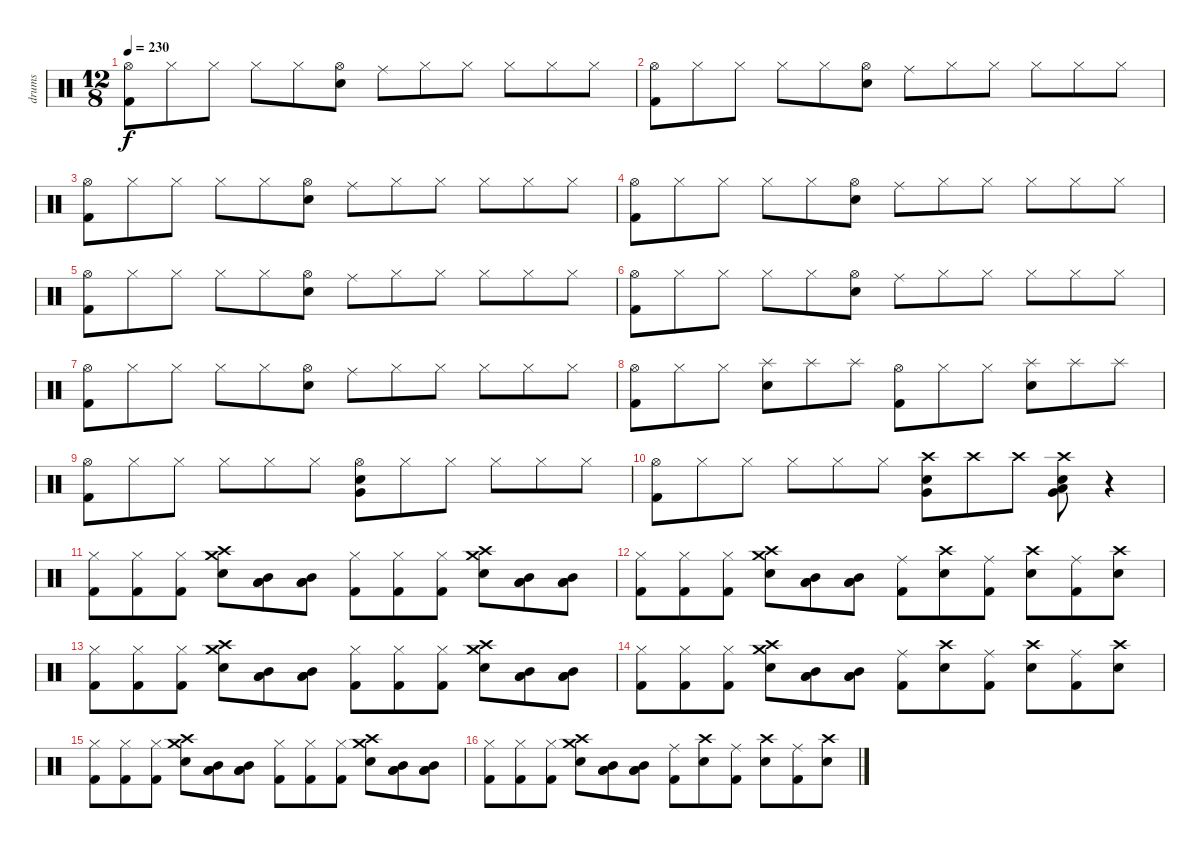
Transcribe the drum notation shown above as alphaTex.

\track ("drums" "drums") {instrument percussion}
\staff {score}
\articulation defaults
\ts (12 8)
\tempo 230
\clef neutral
\ks c
("Hi-Hat (open)" "Kick (hit) 2").8{dy f} "Hi-Hat (closed)".8 "Hi-Hat (closed)".8 "Hi-Hat (closed)".8 "Hi-Hat (closed)".8 ("Snare (hit) 2" "Hi-Hat (open)").8 "Ride (middle)".8 "Hi-Hat (closed)".8 "Hi-Hat (closed)".8 "Hi-Hat (closed)".8 "Hi-Hat (closed)".8 "Hi-Hat (closed)".8 |
("Hi-Hat (open)" "Kick (hit) 2").8 "Hi-Hat (closed)".8 "Hi-Hat (closed)".8 "Hi-Hat (closed)".8 "Hi-Hat (closed)".8 ("Snare (hit) 2" "Hi-Hat (open)").8 "Ride (middle)".8 "Hi-Hat (closed)".8 "Hi-Hat (closed)".8 "Hi-Hat (closed)".8 "Hi-Hat (closed)".8 "Hi-Hat (closed)".8 |
("Hi-Hat (open)" "Kick (hit) 2").8 "Hi-Hat (closed)".8 "Hi-Hat (closed)".8 "Hi-Hat (closed)".8 "Hi-Hat (closed)".8 ("Snare (hit) 2" "Hi-Hat (open)").8 "Ride (middle)".8 "Hi-Hat (closed)".8 "Hi-Hat (closed)".8 "Hi-Hat (closed)".8 "Hi-Hat (closed)".8 "Hi-Hat (closed)".8 |
("Hi-Hat (open)" "Kick (hit) 2").8 "Hi-Hat (closed)".8 "Hi-Hat (closed)".8 "Hi-Hat (closed)".8 "Hi-Hat (closed)".8 ("Snare (hit) 2" "Hi-Hat (open)").8 "Ride (middle)".8 "Hi-Hat (closed)".8 "Hi-Hat (closed)".8 "Hi-Hat (closed)".8 "Hi-Hat (closed)".8 "Hi-Hat (closed)".8 |
("Hi-Hat (open)" "Kick (hit) 2").8 "Hi-Hat (closed)".8 "Hi-Hat (closed)".8 "Hi-Hat (closed)".8 "Hi-Hat (closed)".8 ("Snare (hit) 2" "Hi-Hat (open)").8 "Ride (middle)".8 "Hi-Hat (closed)".8 "Hi-Hat (closed)".8 "Hi-Hat (closed)".8 "Hi-Hat (closed)".8 "Hi-Hat (closed)".8 |
("Hi-Hat (open)" "Kick (hit) 2").8 "Hi-Hat (closed)".8 "Hi-Hat (closed)".8 "Hi-Hat (closed)".8 "Hi-Hat (closed)".8 ("Snare (hit) 2" "Hi-Hat (open)").8 "Ride (middle)".8 "Hi-Hat (closed)".8 "Hi-Hat (closed)".8 "Hi-Hat (closed)".8 "Hi-Hat (closed)".8 "Hi-Hat (closed)".8 |
("Hi-Hat (open)" "Kick (hit) 2").8 "Hi-Hat (closed)".8 "Hi-Hat (closed)".8 "Hi-Hat (closed)".8 "Hi-Hat (closed)".8 ("Snare (hit) 2" "Hi-Hat (open)").8 "Ride (middle)".8 "Hi-Hat (closed)".8 "Hi-Hat (closed)".8 "Hi-Hat (closed)".8 "Hi-Hat (closed)".8 "Hi-Hat (closed)".8 |
("Hi-Hat (open)" "Kick (hit) 2").8 "Hi-Hat (closed)".8 "Hi-Hat (closed)".8 ("Snare (hit) 2" "Splash (hit)").8 "Splash (hit)".8 "Splash (hit)".8 ("Kick (hit) 2" "Hi-Hat (open)").8 "Hi-Hat (closed)".8 "Hi-Hat (closed)".8 ("Snare (hit) 2" "Splash (hit)").8 "Splash (hit)".8 "Splash (hit)".8 |
("Hi-Hat (open)" "Kick (hit) 2").8 "Hi-Hat (closed)".8 "Hi-Hat (closed)".8 "Hi-Hat (closed)".8 "Hi-Hat (closed)".8 "Hi-Hat (closed)".8 ("Very Low Tom (hit)" "Hi-Hat (open)" "Snare (hit) 2").8 "Hi-Hat (closed)".8 "Hi-Hat (closed)".8 "Hi-Hat (closed)".8 "Hi-Hat (closed)".8 "Hi-Hat (closed)".8 |
("Hi-Hat (open)" "Kick (hit) 2").8 "Hi-Hat (closed)".8 "Hi-Hat (closed)".8 "Hi-Hat (closed)".8 "Hi-Hat (closed)".8 "Hi-Hat (closed)".8 ("Crash high (hit)" "Very Low Tom (hit)" "Snare (hit) 2").8 "Crash high (hit)".8 "Crash high (hit)".8 ("Very Low Tom (hit)" "Crash high (hit)" "Low Floor Tom (hit)" "Snare (hit) 2").8 r.4 |
("Hi-Hat (closed)" "Kick (hit) 2").8 ("Hi-Hat (closed)" "Kick (hit) 2").8 ("Hi-Hat (closed)" "Kick (hit) 2").8 ("Snare (hit) 2" "Crash high (hit)" "Crash medium (hit)").8 ("Low Tom (hit)" "Low Floor Tom (hit)" "Mid Tom (hit)").8 ("Mid Tom (hit)" "Low Floor Tom (hit)" "Low Tom (hit)").8 ("Hi-Hat (closed)" "Kick (hit) 2").8 ("Hi-Hat (closed)" "Kick (hit) 2").8 ("Hi-Hat (closed)" "Kick (hit) 2").8 ("Crash medium (hit)" "Crash high (hit)" "Snare (hit) 2").8 ("Mid Tom (hit)" "Low Tom (hit)" "Low Floor Tom (hit)").8 ("Mid Tom (hit)" "Low Tom (hit)" "Low Floor Tom (hit)").8 |
("Hi-Hat (closed)" "Kick (hit) 2").8 ("Hi-Hat (closed)" "Kick (hit) 2").8 ("Hi-Hat (closed)" "Kick (hit) 2").8 ("Snare (hit) 2" "Crash high (hit)" "Crash medium (hit)").8 ("Low Floor Tom (hit)" "Mid Tom (hit)" "Low Tom (hit)").8 ("Mid Tom (hit)" "Low Tom (hit)" "Low Floor Tom (hit)").8 ("Ride (middle)" "Kick (hit) 2").8 ("Crash high (hit)" "Snare (hit) 2").8 ("Ride (middle)" "Kick (hit) 2").8 ("Crash high (hit)" "Snare (hit) 2").8 ("Ride (middle)" "Kick (hit) 2").8 ("Crash high (hit)" "Snare (hit) 2").8 |
("Hi-Hat (closed)" "Kick (hit) 2").8 ("Hi-Hat (closed)" "Kick (hit) 2").8 ("Hi-Hat (closed)" "Kick (hit) 2").8 ("Snare (hit) 2" "Crash high (hit)" "Crash medium (hit)").8 ("Low Tom (hit)" "Low Floor Tom (hit)" "Mid Tom (hit)").8 ("Mid Tom (hit)" "Low Floor Tom (hit)" "Low Tom (hit)").8 ("Hi-Hat (closed)" "Kick (hit) 2").8 ("Hi-Hat (closed)" "Kick (hit) 2").8 ("Hi-Hat (closed)" "Kick (hit) 2").8 ("Crash medium (hit)" "Crash high (hit)" "Snare (hit) 2").8 ("Mid Tom (hit)" "Low Tom (hit)" "Low Floor Tom (hit)").8 ("Mid Tom (hit)" "Low Tom (hit)" "Low Floor Tom (hit)").8 |
("Hi-Hat (closed)" "Kick (hit) 2").8 ("Hi-Hat (closed)" "Kick (hit) 2").8 ("Hi-Hat (closed)" "Kick (hit) 2").8 ("Snare (hit) 2" "Crash high (hit)" "Crash medium (hit)").8 ("Low Floor Tom (hit)" "Mid Tom (hit)" "Low Tom (hit)").8 ("Mid Tom (hit)" "Low Tom (hit)" "Low Floor Tom (hit)").8 ("Ride (middle)" "Kick (hit) 2").8 ("Crash high (hit)" "Snare (hit) 2").8 ("Ride (middle)" "Kick (hit) 2").8 ("Crash high (hit)" "Snare (hit) 2").8 ("Ride (middle)" "Kick (hit) 2").8 ("Crash high (hit)" "Snare (hit) 2").8 |
("Hi-Hat (closed)" "Kick (hit) 2").8 ("Hi-Hat (closed)" "Kick (hit) 2").8 ("Hi-Hat (closed)" "Kick (hit) 2").8 ("Snare (hit) 2" "Crash high (hit)" "Crash medium (hit)").8 ("Low Tom (hit)" "Low Floor Tom (hit)" "Mid Tom (hit)").8 ("Mid Tom (hit)" "Low Floor Tom (hit)" "Low Tom (hit)").8 ("Hi-Hat (closed)" "Kick (hit) 2").8 ("Hi-Hat (closed)" "Kick (hit) 2").8 ("Hi-Hat (closed)" "Kick (hit) 2").8 ("Crash medium (hit)" "Crash high (hit)" "Snare (hit) 2").8 ("Mid Tom (hit)" "Low Tom (hit)" "Low Floor Tom (hit)").8 ("Mid Tom (hit)" "Low Tom (hit)" "Low Floor Tom (hit)").8 |
("Hi-Hat (closed)" "Kick (hit) 2").8 ("Hi-Hat (closed)" "Kick (hit) 2").8 ("Hi-Hat (closed)" "Kick (hit) 2").8 ("Snare (hit) 2" "Crash high (hit)" "Crash medium (hit)").8 ("Low Floor Tom (hit)" "Mid Tom (hit)" "Low Tom (hit)").8 ("Mid Tom (hit)" "Low Tom (hit)" "Low Floor Tom (hit)").8 ("Ride (middle)" "Kick (hit) 2").8 ("Crash high (hit)" "Snare (hit) 2").8 ("Ride (middle)" "Kick (hit) 2").8 ("Crash high (hit)" "Snare (hit) 2").8 ("Ride (middle)" "Kick (hit) 2").8 ("Crash high (hit)" "Snare (hit) 2").8
